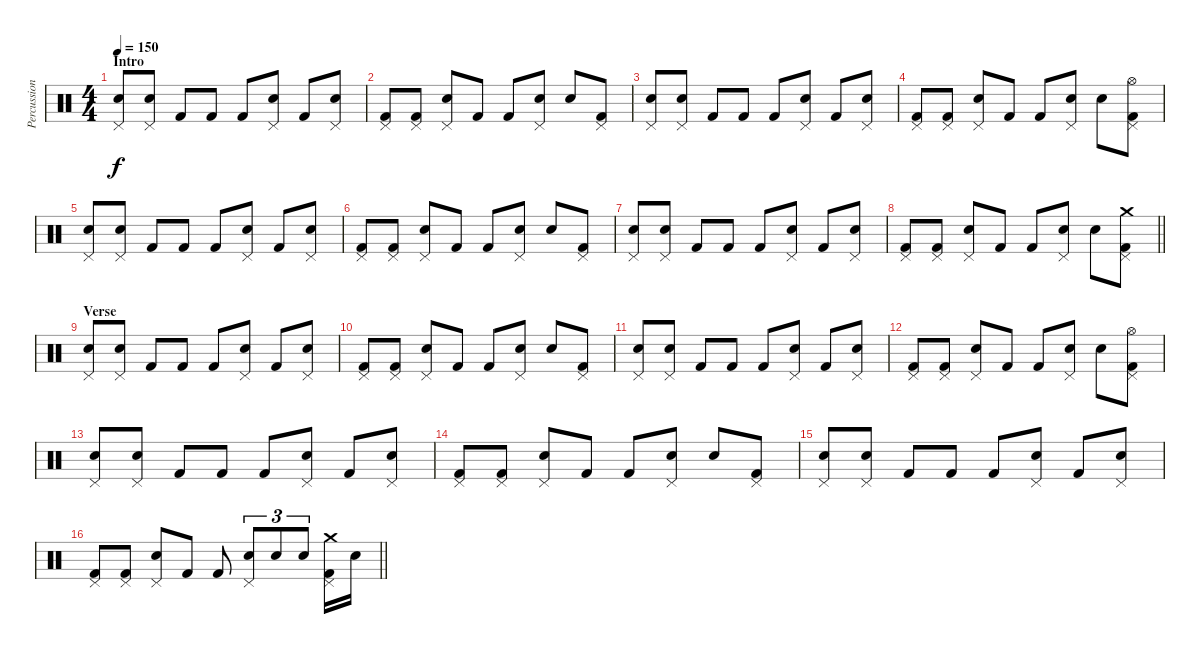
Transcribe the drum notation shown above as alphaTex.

\track ("Percussion" "Percussion") {instrument percussion}
\staff {score}
\articulation defaults
\ts (4 4)
\section ("" "Intro")
\tempo 150
\clef neutral
\ks c
("Pedal Hi-Hat (hit)" "Electric Snare (hit)").8{dy f} ("Pedal Hi-Hat (hit)" "Electric Snare (hit)").8 "Kick (hit) 2".8 "Kick (hit) 2".8 "Kick (hit) 2".8 ("Pedal Hi-Hat (hit)" "Electric Snare (hit)").8 "Kick (hit) 2".8 ("Pedal Hi-Hat (hit)" "Electric Snare (hit)").8 |
("Pedal Hi-Hat (hit)" "Kick (hit) 2").8 ("Pedal Hi-Hat (hit)" "Kick (hit) 2").8 ("Pedal Hi-Hat (hit)" "Electric Snare (hit)").8 "Kick (hit) 2".8 "Kick (hit) 2".8 ("Pedal Hi-Hat (hit)" "Electric Snare (hit)").8 "Electric Snare (hit)".8 ("Pedal Hi-Hat (hit)" "Kick (hit) 2").8 |
("Pedal Hi-Hat (hit)" "Electric Snare (hit)").8 ("Pedal Hi-Hat (hit)" "Electric Snare (hit)").8 "Kick (hit) 2".8 "Kick (hit) 2".8 "Kick (hit) 2".8 ("Pedal Hi-Hat (hit)" "Electric Snare (hit)").8 "Kick (hit) 2".8 ("Pedal Hi-Hat (hit)" "Electric Snare (hit)").8 |
("Pedal Hi-Hat (hit)" "Kick (hit) 2").8 ("Pedal Hi-Hat (hit)" "Kick (hit) 2").8 ("Pedal Hi-Hat (hit)" "Electric Snare (hit)").8 "Kick (hit) 2".8 "Kick (hit) 2".8 ("Pedal Hi-Hat (hit)" "Electric Snare (hit)").8 "Electric Snare (hit)".8 ("Hi-Hat (open)" "Pedal Hi-Hat (hit)" "Kick (hit) 2").8 |
("Pedal Hi-Hat (hit)" "Electric Snare (hit)").8 ("Pedal Hi-Hat (hit)" "Electric Snare (hit)").8 "Kick (hit) 2".8 "Kick (hit) 2".8 "Kick (hit) 2".8 ("Pedal Hi-Hat (hit)" "Electric Snare (hit)").8 "Kick (hit) 2".8 ("Pedal Hi-Hat (hit)" "Electric Snare (hit)").8 |
("Pedal Hi-Hat (hit)" "Kick (hit) 2").8 ("Pedal Hi-Hat (hit)" "Kick (hit) 2").8 ("Pedal Hi-Hat (hit)" "Electric Snare (hit)").8 "Kick (hit) 2".8 "Kick (hit) 2".8 ("Pedal Hi-Hat (hit)" "Electric Snare (hit)").8 "Electric Snare (hit)".8 ("Pedal Hi-Hat (hit)" "Kick (hit) 2").8 |
("Pedal Hi-Hat (hit)" "Electric Snare (hit)").8 ("Pedal Hi-Hat (hit)" "Electric Snare (hit)").8 "Kick (hit) 2".8 "Kick (hit) 2".8 "Kick (hit) 2".8 ("Pedal Hi-Hat (hit)" "Electric Snare (hit)").8 "Kick (hit) 2".8 ("Pedal Hi-Hat (hit)" "Electric Snare (hit)").8 |
\barLineRight lightlight
("Pedal Hi-Hat (hit)" "Kick (hit) 2").8 ("Pedal Hi-Hat (hit)" "Kick (hit) 2").8 ("Pedal Hi-Hat (hit)" "Electric Snare (hit)").8 "Kick (hit) 2".8 "Kick (hit) 2".8 ("Pedal Hi-Hat (hit)" "Electric Snare (hit)").8 "Electric Snare (hit)".8 ("Crash medium (hit)" "Pedal Hi-Hat (hit)" "Kick (hit) 2").8 |
\section ("" "Verse")
("Pedal Hi-Hat (hit)" "Electric Snare (hit)").8 ("Pedal Hi-Hat (hit)" "Electric Snare (hit)").8 "Kick (hit) 2".8 "Kick (hit) 2".8 "Kick (hit) 2".8 ("Pedal Hi-Hat (hit)" "Electric Snare (hit)").8 "Kick (hit) 2".8 ("Pedal Hi-Hat (hit)" "Electric Snare (hit)").8 |
("Pedal Hi-Hat (hit)" "Kick (hit) 2").8 ("Pedal Hi-Hat (hit)" "Kick (hit) 2").8 ("Pedal Hi-Hat (hit)" "Electric Snare (hit)").8 "Kick (hit) 2".8 "Kick (hit) 2".8 ("Pedal Hi-Hat (hit)" "Electric Snare (hit)").8 "Electric Snare (hit)".8 ("Pedal Hi-Hat (hit)" "Kick (hit) 2").8 |
("Pedal Hi-Hat (hit)" "Electric Snare (hit)").8 ("Pedal Hi-Hat (hit)" "Electric Snare (hit)").8 "Kick (hit) 2".8 "Kick (hit) 2".8 "Kick (hit) 2".8 ("Pedal Hi-Hat (hit)" "Electric Snare (hit)").8 "Kick (hit) 2".8 ("Pedal Hi-Hat (hit)" "Electric Snare (hit)").8 |
("Pedal Hi-Hat (hit)" "Kick (hit) 2").8 ("Pedal Hi-Hat (hit)" "Kick (hit) 2").8 ("Pedal Hi-Hat (hit)" "Electric Snare (hit)").8 "Kick (hit) 2".8 "Kick (hit) 2".8 ("Pedal Hi-Hat (hit)" "Electric Snare (hit)").8 "Electric Snare (hit)".8 ("Hi-Hat (open)" "Pedal Hi-Hat (hit)" "Kick (hit) 2").8 |
("Pedal Hi-Hat (hit)" "Electric Snare (hit)").8 ("Pedal Hi-Hat (hit)" "Electric Snare (hit)").8 "Kick (hit) 2".8 "Kick (hit) 2".8 "Kick (hit) 2".8 ("Pedal Hi-Hat (hit)" "Electric Snare (hit)").8 "Kick (hit) 2".8 ("Pedal Hi-Hat (hit)" "Electric Snare (hit)").8 |
("Pedal Hi-Hat (hit)" "Kick (hit) 2").8 ("Pedal Hi-Hat (hit)" "Kick (hit) 2").8 ("Pedal Hi-Hat (hit)" "Electric Snare (hit)").8 "Kick (hit) 2".8 "Kick (hit) 2".8 ("Pedal Hi-Hat (hit)" "Electric Snare (hit)").8 "Electric Snare (hit)".8 ("Pedal Hi-Hat (hit)" "Kick (hit) 2").8 |
("Pedal Hi-Hat (hit)" "Electric Snare (hit)").8 ("Pedal Hi-Hat (hit)" "Electric Snare (hit)").8 "Kick (hit) 2".8 "Kick (hit) 2".8 "Kick (hit) 2".8 ("Pedal Hi-Hat (hit)" "Electric Snare (hit)").8 "Kick (hit) 2".8 ("Pedal Hi-Hat (hit)" "Electric Snare (hit)").8 |
\barLineRight lightlight
("Pedal Hi-Hat (hit)" "Kick (hit) 2").8 ("Pedal Hi-Hat (hit)" "Kick (hit) 2").8 ("Pedal Hi-Hat (hit)" "Electric Snare (hit)").8 "Kick (hit) 2".8 "Kick (hit) 2".8 ("Pedal Hi-Hat (hit)" "Electric Snare (hit)").8{tu (3 2)} "Electric Snare (hit)".8{tu (3 2)} "Electric Snare (hit)".8{tu (3 2)} ("Crash medium (hit)" "Pedal Hi-Hat (hit)" "Kick (hit) 2").16 "Electric Snare (hit)".16
